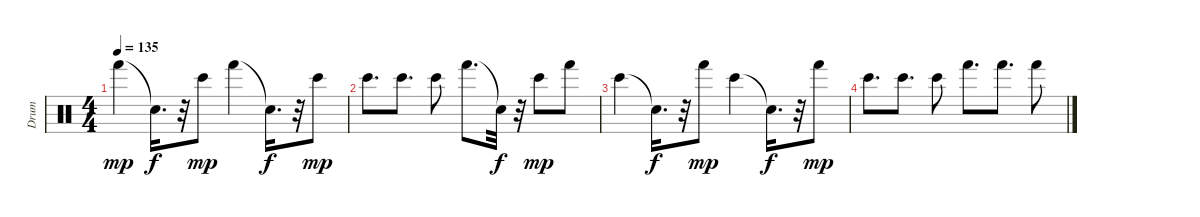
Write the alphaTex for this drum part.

\track ("Drum" "Drum") {instrument percussion}
\staff {score}
\articulation defaults
\ts (4 4)
\tempo 135
\clef neutral
\ks c "Hand (hit)".4{dy mp} "Snare (hit)"{t}.16{d dy f}
r.32 "Bongo High (hit)".8{dy mp} "Hand (hit)".4 "Snare (hit)"{t}.16{d dy f} r.32 "Bongo High (hit)".8{dy mp} |
"Bongo High (hit)".8{d} "Bongo High (hit)".8{d} "Bongo High (hit)".8 "Hand (hit)".8{d} "Snare (hit)"{t}.32{dy f} r.32 "Bongo High (hit)".8{dy mp} "Hand (hit)".8 |
"Bongo High (hit)".4 "Snare (hit)"{t}.16{d dy f} r.32 "Hand (hit)".8{dy mp} "Bongo High (hit)".4 "Snare (hit)"{t}.16{d dy f} r.32 "Hand (hit)".8{dy mp} |
"Bongo High (hit)".8{d} "Bongo High (hit)".8{d} "Bongo High (hit)".8 "Hand (hit)".8{d} "Hand (hit)".8{d} "Hand (hit)".8
